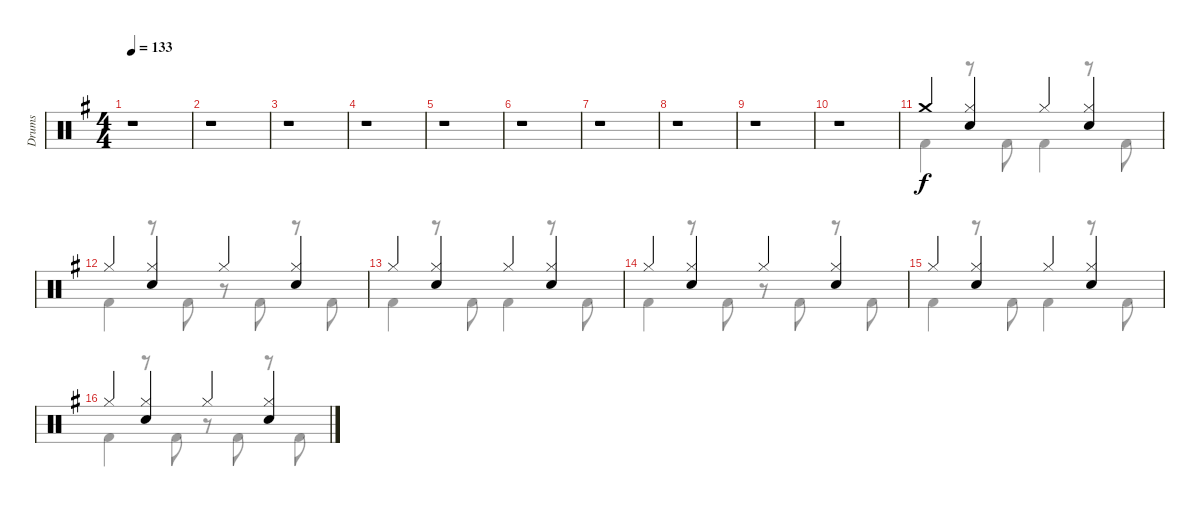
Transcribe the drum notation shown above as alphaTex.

\track ("Drums" "Drums") {instrument percussion}
\staff {score}
\articulation defaults
\voice
\ts (4 4)
\tempo 133
\clef neutral
\ks g
r.1{dy f} |
r.1 |
r.1 |
r.1 |
r.1 |
r.1 |
r.1 |
r.1 |
r.1 |
r.1 |
"Crash medium (hit)".4 ("Hi-Hat (closed)" "Snare (hit) 2").4 "Hi-Hat (closed)".4 ("Hi-Hat (closed)" "Snare (hit) 2").4 |
"Hi-Hat (closed)".4 ("Hi-Hat (closed)" "Snare (hit) 2").4 "Hi-Hat (closed)".4 ("Hi-Hat (closed)" "Snare (hit) 2").4 |
"Hi-Hat (closed)".4 ("Hi-Hat (closed)" "Snare (hit) 2").4 "Hi-Hat (closed)".4 ("Hi-Hat (closed)" "Snare (hit) 2").4 |
"Hi-Hat (closed)".4 ("Hi-Hat (closed)" "Snare (hit) 2").4 "Hi-Hat (closed)".4 ("Hi-Hat (closed)" "Snare (hit) 2").4 |
"Hi-Hat (closed)".4 ("Hi-Hat (closed)" "Snare (hit) 2").4 "Hi-Hat (closed)".4 ("Hi-Hat (closed)" "Snare (hit) 2").4 |
"Hi-Hat (closed)".4 ("Hi-Hat (closed)" "Snare (hit) 2").4 "Hi-Hat (closed)".4 ("Hi-Hat (closed)" "Snare (hit) 2").4
\voice
\clef neutral
\ottava regular
\simile none
\ks g
|
|
|
|
|
|
|
|
|
|
"Kick (hit) 2".4 r.8 "Kick (hit) 2".8 "Kick (hit) 2".4 r.8 "Kick (hit) 2".8 |
"Kick (hit) 2".4 r.8 "Kick (hit) 2".8 r.8 "Kick (hit) 2".8 r.8 "Kick (hit) 2".8 |
"Kick (hit) 2".4 r.8 "Kick (hit) 2".8 "Kick (hit) 2".4 r.8 "Kick (hit) 2".8 |
"Kick (hit) 2".4 r.8 "Kick (hit) 2".8 r.8 "Kick (hit) 2".8 r.8 "Kick (hit) 2".8 |
"Kick (hit) 2".4 r.8 "Kick (hit) 2".8 "Kick (hit) 2".4 r.8 "Kick (hit) 2".8 |
"Kick (hit) 2".4 r.8 "Kick (hit) 2".8 r.8 "Kick (hit) 2".8 r.8 "Kick (hit) 2".8
